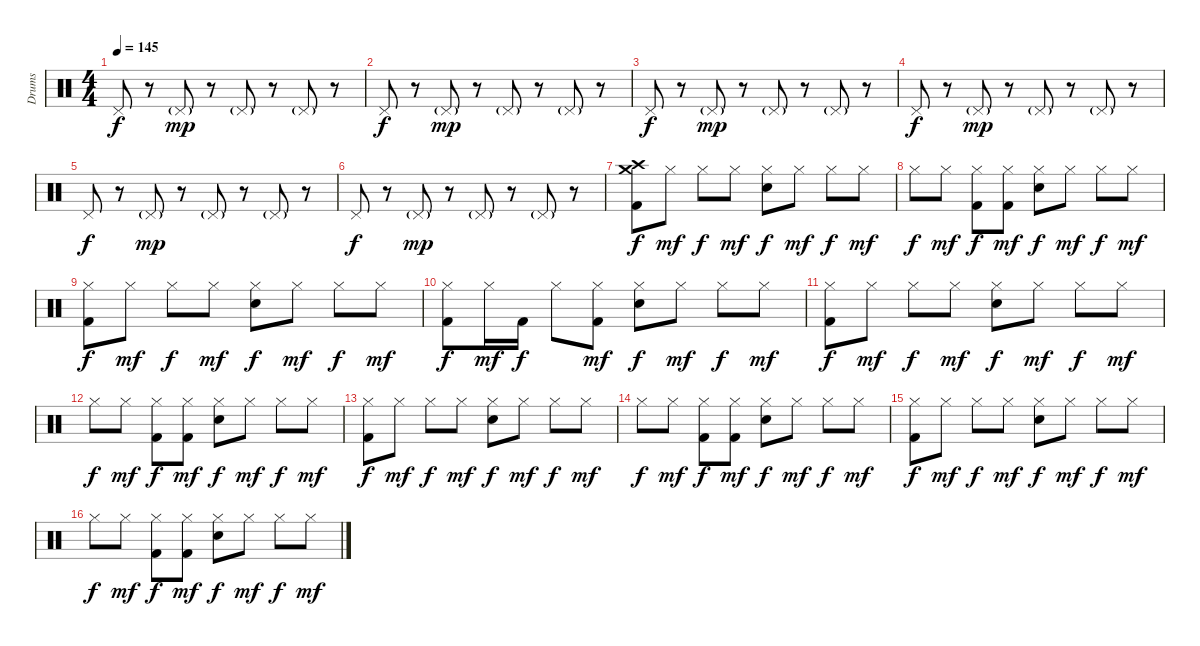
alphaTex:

\track ("Drums" "Drums") {instrument percussion}
\staff {score}
\articulation defaults
\ts (4 4)
\tempo 145
\clef neutral
\ks c "Pedal Hi-Hat (hit)".8{dy f}
r.8 "Pedal Hi-Hat (hit)"{g}.8{dy mp} r.8 "Pedal Hi-Hat (hit)"{g}.8 r.8 "Pedal Hi-Hat (hit)"{g}.8 r.8 |
"Pedal Hi-Hat (hit)".8{dy f} r.8 "Pedal Hi-Hat (hit)"{g}.8{dy mp} r.8 "Pedal Hi-Hat (hit)"{g}.8 r.8 "Pedal Hi-Hat (hit)"{g}.8 r.8 |
"Pedal Hi-Hat (hit)".8{dy f} r.8 "Pedal Hi-Hat (hit)"{g}.8{dy mp} r.8 "Pedal Hi-Hat (hit)"{g}.8 r.8 "Pedal Hi-Hat (hit)"{g}.8 r.8 |
"Pedal Hi-Hat (hit)".8{dy f} r.8 "Pedal Hi-Hat (hit)"{g}.8{dy mp} r.8 "Pedal Hi-Hat (hit)"{g}.8 r.8 "Pedal Hi-Hat (hit)"{g}.8 r.8 |
"Pedal Hi-Hat (hit)".8{dy f} r.8 "Pedal Hi-Hat (hit)"{g}.8{dy mp} r.8 "Pedal Hi-Hat (hit)"{g}.8 r.8 "Pedal Hi-Hat (hit)"{g}.8 r.8 |
"Pedal Hi-Hat (hit)".8{dy f} r.8 "Pedal Hi-Hat (hit)"{g}.8{dy mp} r.8 "Pedal Hi-Hat (hit)"{g}.8 r.8 "Pedal Hi-Hat (hit)"{g}.8 r.8 |
("Crash medium (hit)" "Crash high (hit)" "Kick (hit) 2").8{dy f} "Hi-Hat (closed)".8{dy mf} "Hi-Hat (closed)".8{dy f} "Hi-Hat (closed)".8{dy mf} ("Hi-Hat (closed)" "Electric Snare (hit)").8{dy f} "Hi-Hat (closed)".8{dy mf} "Hi-Hat (closed)".8{dy f} "Hi-Hat (closed)".8{dy mf} |
"Hi-Hat (closed)".8{dy f} "Hi-Hat (closed)".8{dy mf} ("Hi-Hat (closed)" "Kick (hit) 2").8{dy f} ("Hi-Hat (closed)" "Kick (hit) 2").8{dy mf} ("Hi-Hat (closed)" "Electric Snare (hit)").8{dy f} "Hi-Hat (closed)".8{dy mf} "Hi-Hat (closed)".8{dy f} "Hi-Hat (closed)".8{dy mf} |
("Hi-Hat (closed)" "Kick (hit) 2").8{dy f} "Hi-Hat (closed)".8{dy mf} "Hi-Hat (closed)".8{dy f} "Hi-Hat (closed)".8{dy mf} ("Hi-Hat (closed)" "Electric Snare (hit)").8{dy f} "Hi-Hat (closed)".8{dy mf} "Hi-Hat (closed)".8{dy f} "Hi-Hat (closed)".8{dy mf} |
("Hi-Hat (closed)" "Kick (hit) 2").8{dy f} "Hi-Hat (closed)".16{dy mf} "Kick (hit) 2".16{dy f} "Hi-Hat (closed)".8 ("Hi-Hat (closed)" "Kick (hit) 2").8{dy mf} ("Hi-Hat (closed)" "Electric Snare (hit)").8{dy f} "Hi-Hat (closed)".8{dy mf} "Hi-Hat (closed)".8{dy f} "Hi-Hat (closed)".8{dy mf} |
("Hi-Hat (closed)" "Kick (hit) 2").8{dy f} "Hi-Hat (closed)".8{dy mf} "Hi-Hat (closed)".8{dy f} "Hi-Hat (closed)".8{dy mf} ("Hi-Hat (closed)" "Electric Snare (hit)").8{dy f} "Hi-Hat (closed)".8{dy mf} "Hi-Hat (closed)".8{dy f} "Hi-Hat (closed)".8{dy mf} |
"Hi-Hat (closed)".8{dy f} "Hi-Hat (closed)".8{dy mf} ("Hi-Hat (closed)" "Kick (hit) 2").8{dy f} ("Hi-Hat (closed)" "Kick (hit) 2").8{dy mf} ("Hi-Hat (closed)" "Electric Snare (hit)").8{dy f} "Hi-Hat (closed)".8{dy mf} "Hi-Hat (closed)".8{dy f} "Hi-Hat (closed)".8{dy mf} |
("Hi-Hat (closed)" "Kick (hit) 2").8{dy f} "Hi-Hat (closed)".8{dy mf} "Hi-Hat (closed)".8{dy f} "Hi-Hat (closed)".8{dy mf} ("Hi-Hat (closed)" "Electric Snare (hit)").8{dy f} "Hi-Hat (closed)".8{dy mf} "Hi-Hat (closed)".8{dy f} "Hi-Hat (closed)".8{dy mf} |
"Hi-Hat (closed)".8{dy f} "Hi-Hat (closed)".8{dy mf} ("Hi-Hat (closed)" "Kick (hit) 2").8{dy f} ("Hi-Hat (closed)" "Kick (hit) 2").8{dy mf} ("Hi-Hat (closed)" "Electric Snare (hit)").8{dy f} "Hi-Hat (closed)".8{dy mf} "Hi-Hat (closed)".8{dy f} "Hi-Hat (closed)".8{dy mf} |
("Hi-Hat (closed)" "Kick (hit) 2").8{dy f} "Hi-Hat (closed)".8{dy mf} "Hi-Hat (closed)".8{dy f} "Hi-Hat (closed)".8{dy mf} ("Hi-Hat (closed)" "Electric Snare (hit)").8{dy f} "Hi-Hat (closed)".8{dy mf} "Hi-Hat (closed)".8{dy f} "Hi-Hat (closed)".8{dy mf} |
"Hi-Hat (closed)".8{dy f} "Hi-Hat (closed)".8{dy mf} ("Hi-Hat (closed)" "Kick (hit) 2").8{dy f} ("Hi-Hat (closed)" "Kick (hit) 2").8{dy mf} ("Hi-Hat (closed)" "Electric Snare (hit)").8{dy f} "Hi-Hat (closed)".8{dy mf} "Hi-Hat (closed)".8{dy f} "Hi-Hat (closed)".8{dy mf}
